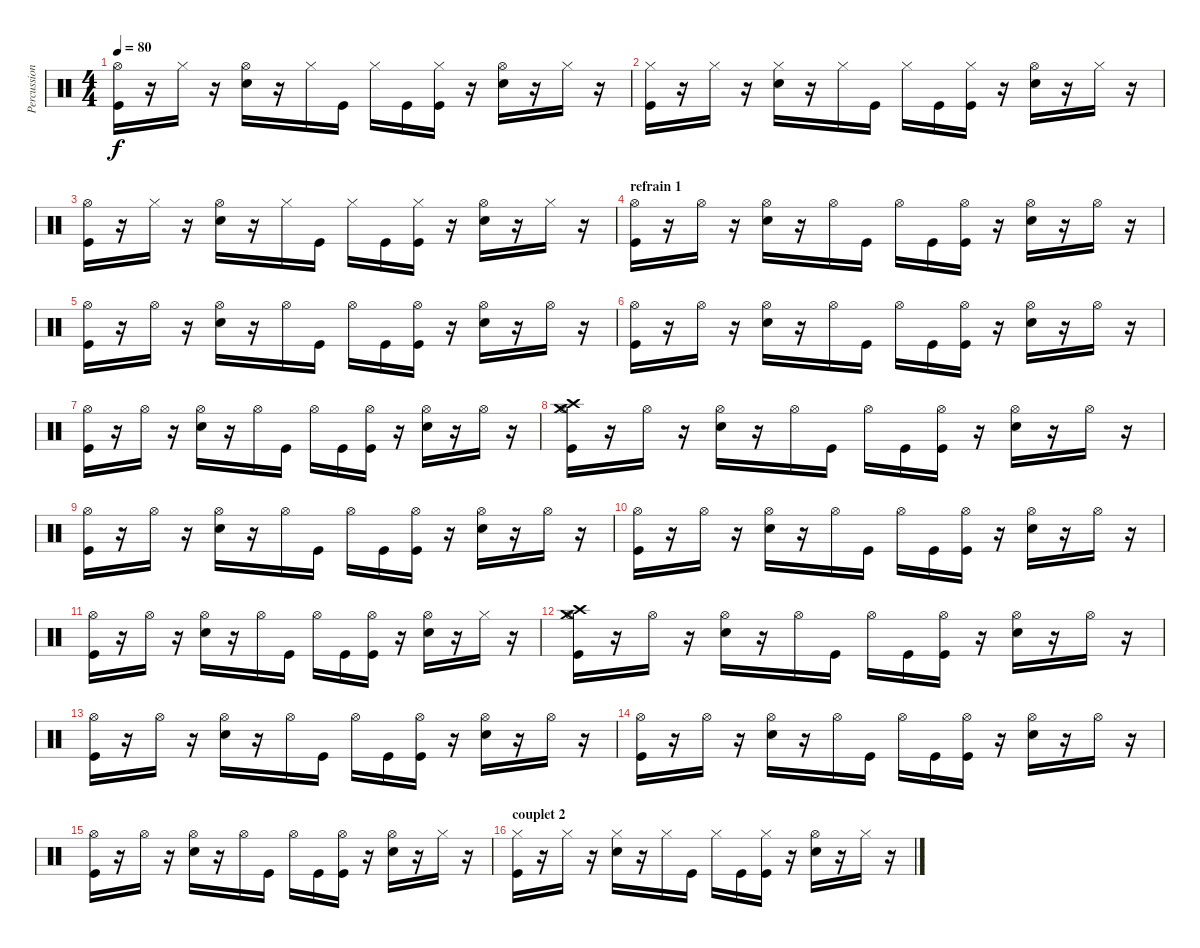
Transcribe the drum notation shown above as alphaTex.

\track ("Percussions" "Percussion") {instrument percussion}
\staff {score}
\articulation defaults
\ts (4 4)
\tempo 80
\clef neutral
\ks c
("Hi-Hat (open)" "Kick (hit)").16{dy f} r.16 "Hi-Hat (closed)".16 r.16 ("Hi-Hat (open)" "Electric Snare (hit)").16 r.16 "Hi-Hat (closed)".16 "Kick (hit)".16 "Hi-Hat (closed)".16 "Kick (hit)".16 ("Hi-Hat (closed)" "Kick (hit)").16 r.16 ("Hi-Hat (open)" "Electric Snare (hit)").16 r.16 "Hi-Hat (closed)".16 r.16 |
("Hi-Hat (closed)" "Kick (hit)").16 r.16 "Hi-Hat (closed)".16 r.16 ("Hi-Hat (closed)" "Electric Snare (hit)").16 r.16 "Hi-Hat (closed)".16 "Kick (hit)".16 "Hi-Hat (closed)".16 "Kick (hit)".16 ("Hi-Hat (closed)" "Kick (hit)").16 r.16 ("Hi-Hat (open)" "Electric Snare (hit)").16 r.16 "Hi-Hat (closed)".16 r.16 |
("Hi-Hat (open)" "Kick (hit)").16 r.16 "Hi-Hat (closed)".16 r.16 ("Hi-Hat (open)" "Electric Snare (hit)").16 r.16 "Hi-Hat (closed)".16 "Kick (hit)".16 "Hi-Hat (closed)".16 "Kick (hit)".16 ("Hi-Hat (closed)" "Kick (hit)").16 r.16 ("Hi-Hat (open)" "Electric Snare (hit)").16 r.16 "Hi-Hat (closed)".16 r.16 |
\section ("" "refrain 1")
("Hi-Hat (open)" "Kick (hit)").16 r.16 "Hi-Hat (open)".16 r.16 ("Hi-Hat (open)" "Electric Snare (hit)").16 r.16 "Hi-Hat (open)".16 "Kick (hit)".16 "Hi-Hat (open)".16 "Kick (hit)".16 ("Hi-Hat (open)" "Kick (hit)").16 r.16 ("Hi-Hat (open)" "Electric Snare (hit)").16 r.16 "Hi-Hat (open)".16 r.16 |
("Hi-Hat (open)" "Kick (hit)").16 r.16 "Hi-Hat (open)".16 r.16 ("Hi-Hat (open)" "Electric Snare (hit)").16 r.16 "Hi-Hat (open)".16 "Kick (hit)".16 "Hi-Hat (open)".16 "Kick (hit)".16 ("Hi-Hat (open)" "Kick (hit)").16 r.16 ("Hi-Hat (open)" "Electric Snare (hit)").16 r.16 "Hi-Hat (open)".16 r.16 |
("Hi-Hat (open)" "Kick (hit)").16 r.16 "Hi-Hat (open)".16 r.16 ("Hi-Hat (open)" "Electric Snare (hit)").16 r.16 "Hi-Hat (open)".16 "Kick (hit)".16 "Hi-Hat (open)".16 "Kick (hit)".16 ("Hi-Hat (open)" "Kick (hit)").16 r.16 ("Hi-Hat (open)" "Electric Snare (hit)").16 r.16 "Hi-Hat (open)".16 r.16 |
("Hi-Hat (open)" "Kick (hit)").16 r.16 "Hi-Hat (open)".16 r.16 ("Hi-Hat (open)" "Electric Snare (hit)").16 r.16 "Hi-Hat (open)".16 "Kick (hit)".16 "Hi-Hat (open)".16 "Kick (hit)".16 ("Hi-Hat (open)" "Kick (hit)").16 r.16 ("Hi-Hat (open)" "Electric Snare (hit)").16 r.16 "Hi-Hat (open)".16 r.16 |
("Hi-Hat (open)" "Crash high (hit)" "Crash medium (hit)" "Kick (hit)").16 r.16 "Hi-Hat (open)".16 r.16 ("Hi-Hat (open)" "Electric Snare (hit)").16 r.16 "Hi-Hat (open)".16 "Kick (hit)".16 "Hi-Hat (open)".16 "Kick (hit)".16 ("Hi-Hat (open)" "Kick (hit)").16 r.16 ("Hi-Hat (open)" "Electric Snare (hit)").16 r.16 "Hi-Hat (open)".16 r.16 |
("Hi-Hat (open)" "Kick (hit)").16 r.16 "Hi-Hat (open)".16 r.16 ("Hi-Hat (open)" "Electric Snare (hit)").16 r.16 "Hi-Hat (open)".16 "Kick (hit)".16 "Hi-Hat (open)".16 "Kick (hit)".16 ("Hi-Hat (open)" "Kick (hit)").16 r.16 ("Hi-Hat (open)" "Electric Snare (hit)").16 r.16 "Hi-Hat (open)".16 r.16 |
("Hi-Hat (open)" "Kick (hit)").16 r.16 "Hi-Hat (open)".16 r.16 ("Hi-Hat (open)" "Electric Snare (hit)").16 r.16 "Hi-Hat (open)".16 "Kick (hit)".16 "Hi-Hat (open)".16 "Kick (hit)".16 ("Hi-Hat (open)" "Kick (hit)").16 r.16 ("Hi-Hat (open)" "Electric Snare (hit)").16 r.16 "Hi-Hat (open)".16 r.16 |
("Hi-Hat (open)" "Kick (hit)").16 r.16 "Hi-Hat (open)".16 r.16 ("Hi-Hat (open)" "Electric Snare (hit)").16 r.16 "Hi-Hat (open)".16 "Kick (hit)".16 "Hi-Hat (open)".16 "Kick (hit)".16 ("Hi-Hat (open)" "Kick (hit)").16 r.16 ("Hi-Hat (open)" "Electric Snare (hit)").16 r.16 "Hi-Hat (closed)".16 r.16 |
("Hi-Hat (open)" "Crash high (hit)" "Crash medium (hit)" "Kick (hit)").16 r.16 "Hi-Hat (open)".16 r.16 ("Hi-Hat (open)" "Electric Snare (hit)").16 r.16 "Hi-Hat (open)".16 "Kick (hit)".16 "Hi-Hat (open)".16 "Kick (hit)".16 ("Hi-Hat (open)" "Kick (hit)").16 r.16 ("Hi-Hat (open)" "Electric Snare (hit)").16 r.16 "Hi-Hat (open)".16 r.16 |
("Hi-Hat (open)" "Kick (hit)").16 r.16 "Hi-Hat (open)".16 r.16 ("Hi-Hat (open)" "Electric Snare (hit)").16 r.16 "Hi-Hat (open)".16 "Kick (hit)".16 "Hi-Hat (open)".16 "Kick (hit)".16 ("Hi-Hat (open)" "Kick (hit)").16 r.16 ("Hi-Hat (open)" "Electric Snare (hit)").16 r.16 "Hi-Hat (open)".16 r.16 |
("Hi-Hat (open)" "Kick (hit)").16 r.16 "Hi-Hat (open)".16 r.16 ("Hi-Hat (open)" "Electric Snare (hit)").16 r.16 "Hi-Hat (open)".16 "Kick (hit)".16 "Hi-Hat (open)".16 "Kick (hit)".16 ("Hi-Hat (open)" "Kick (hit)").16 r.16 ("Hi-Hat (open)" "Electric Snare (hit)").16 r.16 "Hi-Hat (open)".16 r.16 |
("Hi-Hat (open)" "Kick (hit)").16 r.16 "Hi-Hat (open)".16 r.16 ("Hi-Hat (open)" "Electric Snare (hit)").16 r.16 "Hi-Hat (open)".16 "Kick (hit)".16 "Hi-Hat (open)".16 "Kick (hit)".16 ("Hi-Hat (open)" "Kick (hit)").16 r.16 ("Hi-Hat (open)" "Electric Snare (hit)").16 r.16 "Hi-Hat (closed)".16 r.16 |
\section ("" "couplet 2")
("Hi-Hat (closed)" "Kick (hit)").16 r.16 "Hi-Hat (closed)".16 r.16 ("Hi-Hat (closed)" "Electric Snare (hit)").16 r.16 "Hi-Hat (closed)".16 "Kick (hit)".16 "Hi-Hat (closed)".16 "Kick (hit)".16 ("Hi-Hat (closed)" "Kick (hit)").16 r.16 ("Hi-Hat (open)" "Electric Snare (hit)").16 r.16 "Hi-Hat (closed)".16 r.16
